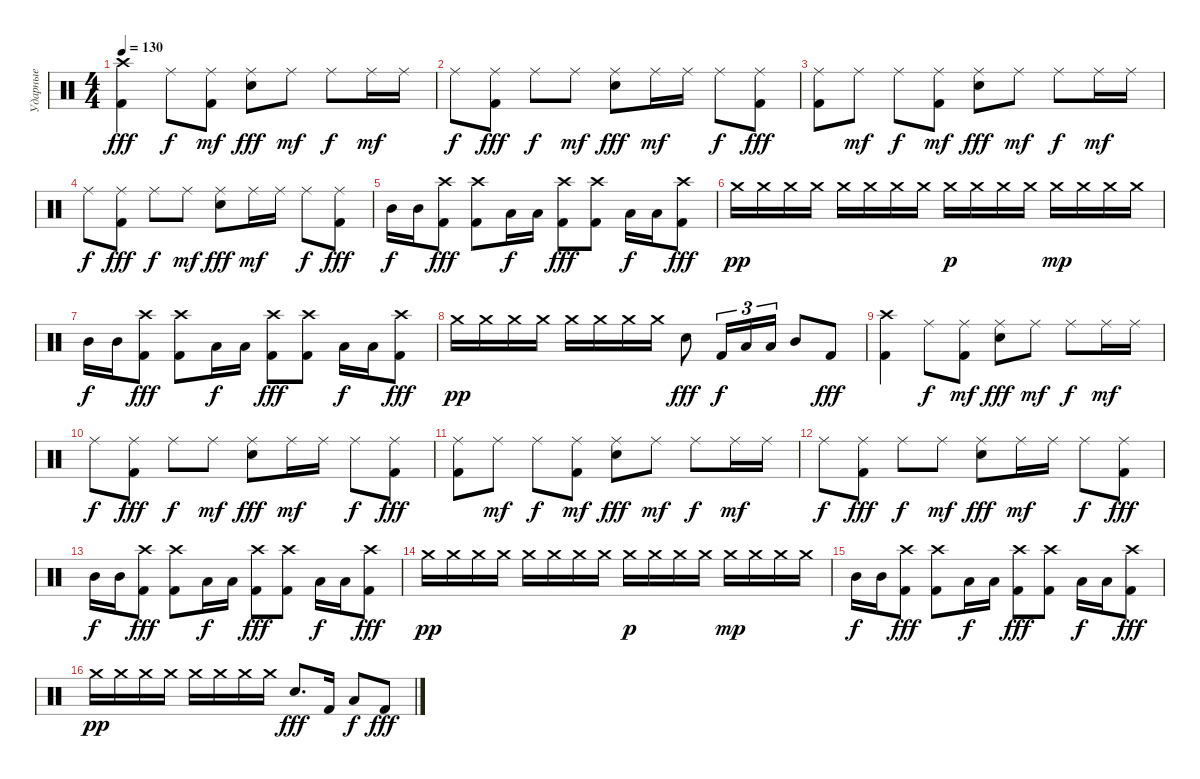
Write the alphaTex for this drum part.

\track ("Ударные" "Ударные") {instrument percussion}
\staff {score}
\articulation defaults
\ts (4 4)
\tempo 130
\clef neutral
\ks c
("Crash high (hit)" "Kick (hit) 2").4{dy fff} "Ride (middle)".8{dy f} ("Ride (middle)" "Kick (hit) 2").8{dy mf} ("Ride (middle)" "Electric Snare (hit)").8{dy fff} "Ride (middle)".8{dy mf} "Ride (middle)".8{dy f} "Ride (middle)".16{dy mf} "Ride (middle)".16 |
"Ride (middle)".8{dy f} ("Ride (middle)" "Kick (hit) 2").8{dy fff} "Ride (middle)".8{dy f} "Ride (middle)".8{dy mf} ("Ride (middle)" "Electric Snare (hit)").8{dy fff} "Ride (middle)".16{dy mf} "Ride (middle)".16 "Ride (middle)".8{dy f} ("Ride (middle)" "Kick (hit) 2").8{dy fff} |
("Ride (middle)" "Kick (hit) 2").8 "Ride (middle)".8{dy mf} "Ride (middle)".8{dy f} ("Ride (middle)" "Kick (hit) 2").8{dy mf} ("Ride (middle)" "Electric Snare (hit)").8{dy fff} "Ride (middle)".8{dy mf} "Ride (middle)".8{dy f} "Ride (middle)".16{dy mf} "Ride (middle)".16 |
"Ride (middle)".8{dy f} ("Ride (middle)" "Kick (hit) 2").8{dy fff} "Ride (middle)".8{dy f} "Ride (middle)".8{dy mf} ("Ride (middle)" "Electric Snare (hit)").8{dy fff} "Ride (middle)".16{dy mf} "Ride (middle)".16 "Ride (middle)".8{dy f} ("Ride (middle)" "Kick (hit) 2").8{dy fff} |
"Mid Tom (hit)".16{dy f} "Mid Tom (hit)".16 ("Crash high (hit)" "Kick (hit) 2").8{dy fff} ("Crash high (hit)" "Kick (hit) 2").8 "Low Tom (hit)".16{dy f} "Low Tom (hit)".16 ("Crash high (hit)" "Kick (hit) 2").8{dy fff} ("Crash high (hit)" "Kick (hit) 2").8 "Low Floor Tom (hit)".16{dy f} "Low Floor Tom (hit)".16 ("Crash high (hit)" "Kick (hit) 2").8{dy fff} |
"Crash medium (hit)".16{dy pp} "Crash medium (hit)".16 "Crash medium (hit)".16 "Crash medium (hit)".16 "Crash medium (hit)".16 "Crash medium (hit)".16 "Crash medium (hit)".16 "Crash medium (hit)".16 "Crash medium (hit)".16{dy p} "Crash medium (hit)".16 "Crash medium (hit)".16 "Crash medium (hit)".16 "Crash medium (hit)".16{dy mp} "Crash medium (hit)".16 "Crash medium (hit)".16 "Crash medium (hit)".16 |
"Mid Tom (hit)".16{dy f} "Mid Tom (hit)".16 ("Crash high (hit)" "Kick (hit) 2").8{dy fff} ("Crash high (hit)" "Kick (hit) 2").8 "Low Tom (hit)".16{dy f} "Low Tom (hit)".16 ("Crash high (hit)" "Kick (hit) 2").8{dy fff} ("Crash high (hit)" "Kick (hit) 2").8 "Low Floor Tom (hit)".16{dy f} "Low Floor Tom (hit)".16 ("Crash high (hit)" "Kick (hit) 2").8{dy fff} |
"Crash medium (hit)".16{dy pp} "Crash medium (hit)".16 "Crash medium (hit)".16 "Crash medium (hit)".16 "Crash medium (hit)".16 "Crash medium (hit)".16 "Crash medium (hit)".16 "Crash medium (hit)".16 "Electric Snare (hit)".8{dy fff} "Kick (hit) 2".16{tu (3 2) dy f} "Low Floor Tom (hit)".16{tu (3 2)} "Low Floor Tom (hit)".16{tu (3 2)} "Mid Tom (hit)".8 "Kick (hit) 2".8{dy fff} |
("Crash high (hit)" "Kick (hit) 2").4 "Ride (middle)".8{dy f} ("Ride (middle)" "Kick (hit) 2").8{dy mf} ("Ride (middle)" "Electric Snare (hit)").8{dy fff} "Ride (middle)".8{dy mf} "Ride (middle)".8{dy f} "Ride (middle)".16{dy mf} "Ride (middle)".16 |
"Ride (middle)".8{dy f} ("Ride (middle)" "Kick (hit) 2").8{dy fff} "Ride (middle)".8{dy f} "Ride (middle)".8{dy mf} ("Ride (middle)" "Electric Snare (hit)").8{dy fff} "Ride (middle)".16{dy mf} "Ride (middle)".16 "Ride (middle)".8{dy f} ("Ride (middle)" "Kick (hit) 2").8{dy fff} |
("Ride (middle)" "Kick (hit) 2").8 "Ride (middle)".8{dy mf} "Ride (middle)".8{dy f} ("Ride (middle)" "Kick (hit) 2").8{dy mf} ("Ride (middle)" "Electric Snare (hit)").8{dy fff} "Ride (middle)".8{dy mf} "Ride (middle)".8{dy f} "Ride (middle)".16{dy mf} "Ride (middle)".16 |
"Ride (middle)".8{dy f} ("Ride (middle)" "Kick (hit) 2").8{dy fff} "Ride (middle)".8{dy f} "Ride (middle)".8{dy mf} ("Ride (middle)" "Electric Snare (hit)").8{dy fff} "Ride (middle)".16{dy mf} "Ride (middle)".16 "Ride (middle)".8{dy f} ("Ride (middle)" "Kick (hit) 2").8{dy fff} |
"Mid Tom (hit)".16{dy f} "Mid Tom (hit)".16 ("Crash high (hit)" "Kick (hit) 2").8{dy fff} ("Crash high (hit)" "Kick (hit) 2").8 "Low Tom (hit)".16{dy f} "Low Tom (hit)".16 ("Crash high (hit)" "Kick (hit) 2").8{dy fff} ("Crash high (hit)" "Kick (hit) 2").8 "Low Floor Tom (hit)".16{dy f} "Low Floor Tom (hit)".16 ("Crash high (hit)" "Kick (hit) 2").8{dy fff} |
"Crash medium (hit)".16{dy pp} "Crash medium (hit)".16 "Crash medium (hit)".16 "Crash medium (hit)".16 "Crash medium (hit)".16 "Crash medium (hit)".16 "Crash medium (hit)".16 "Crash medium (hit)".16 "Crash medium (hit)".16{dy p} "Crash medium (hit)".16 "Crash medium (hit)".16 "Crash medium (hit)".16 "Crash medium (hit)".16{dy mp} "Crash medium (hit)".16 "Crash medium (hit)".16 "Crash medium (hit)".16 |
"Mid Tom (hit)".16{dy f} "Mid Tom (hit)".16 ("Crash high (hit)" "Kick (hit) 2").8{dy fff} ("Crash high (hit)" "Kick (hit) 2").8 "Low Tom (hit)".16{dy f} "Low Tom (hit)".16 ("Crash high (hit)" "Kick (hit) 2").8{dy fff} ("Crash high (hit)" "Kick (hit) 2").8 "Low Floor Tom (hit)".16{dy f} "Low Floor Tom (hit)".16 ("Crash high (hit)" "Kick (hit) 2").8{dy fff} |
"Crash medium (hit)".16{dy pp} "Crash medium (hit)".16 "Crash medium (hit)".16 "Crash medium (hit)".16 "Crash medium (hit)".16 "Crash medium (hit)".16 "Crash medium (hit)".16 "Crash medium (hit)".16 "Electric Snare (hit)".8{d dy fff} "Kick (hit) 2".16 "Low Floor Tom (hit)".8{dy f} "Kick (hit) 2".8{dy fff}
